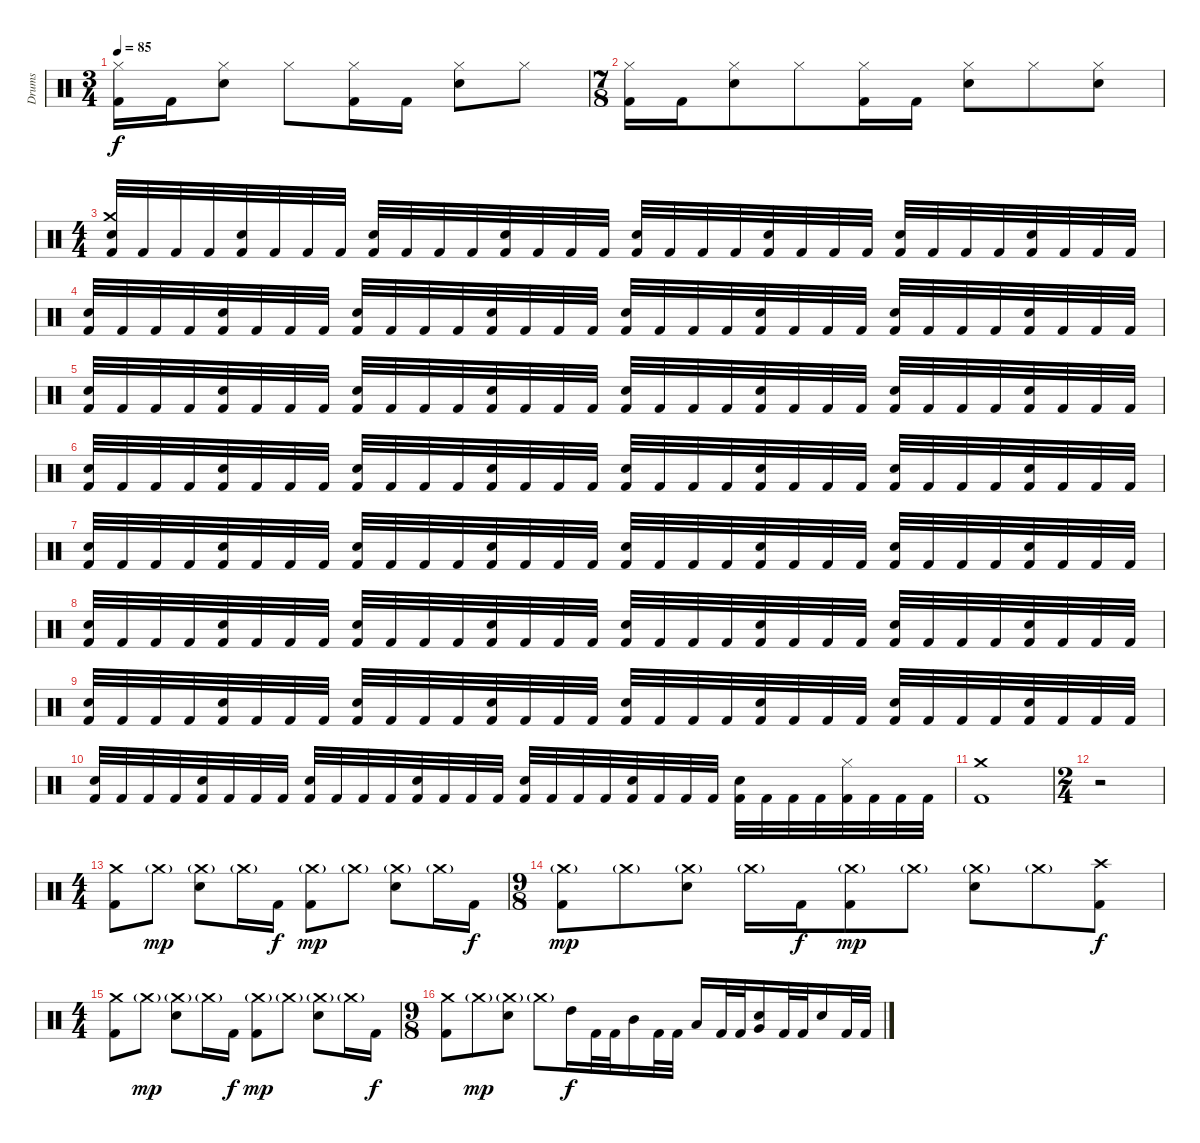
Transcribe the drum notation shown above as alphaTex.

\track ("Drums" "Drums") {instrument percussion}
\staff {score}
\articulation defaults
\ts (3 4)
\tempo 85
\clef neutral
\ks c
("Hi-Hat (closed)" "Kick (hit) 2").16{dy f} "Kick (hit) 2".16 ("Hi-Hat (closed)" "Snare (hit) 2").8 "Hi-Hat (closed)".8 ("Hi-Hat (closed)" "Kick (hit) 2").16 "Kick (hit) 2".16 ("Hi-Hat (closed)" "Snare (hit) 2").8 "Hi-Hat (closed)".8 |
\ts (7 8)
("Hi-Hat (closed)" "Kick (hit) 2").16 "Kick (hit) 2".16 ("Hi-Hat (closed)" "Snare (hit) 2").8 "Hi-Hat (closed)".8 ("Hi-Hat (closed)" "Kick (hit) 2").16 "Kick (hit) 2".16 ("Hi-Hat (closed)" "Snare (hit) 2").8 "Hi-Hat (closed)".8 ("Hi-Hat (closed)" "Snare (hit) 2").8 |
\ts (4 4)
("Crash medium (hit)" "Electric Snare (hit)" "Kick (hit) 2").32 "Kick (hit) 2".32 "Kick (hit) 2".32 "Kick (hit) 2".32 ("Electric Snare (hit)" "Kick (hit) 2").32 "Kick (hit) 2".32 "Kick (hit) 2".32 "Kick (hit) 2".32 ("Electric Snare (hit)" "Kick (hit) 2").32 "Kick (hit) 2".32 "Kick (hit) 2".32 "Kick (hit) 2".32 ("Electric Snare (hit)" "Kick (hit) 2").32 "Kick (hit) 2".32 "Kick (hit) 2".32 "Kick (hit) 2".32 ("Electric Snare (hit)" "Kick (hit) 2").32 "Kick (hit) 2".32 "Kick (hit) 2".32 "Kick (hit) 2".32 ("Electric Snare (hit)" "Kick (hit) 2").32 "Kick (hit) 2".32 "Kick (hit) 2".32 "Kick (hit) 2".32 ("Electric Snare (hit)" "Kick (hit) 2").32 "Kick (hit) 2".32 "Kick (hit) 2".32 "Kick (hit) 2".32 ("Electric Snare (hit)" "Kick (hit) 2").32 "Kick (hit) 2".32 "Kick (hit) 2".32 "Kick (hit) 2".32 |
("Electric Snare (hit)" "Kick (hit) 2").32 "Kick (hit) 2".32 "Kick (hit) 2".32 "Kick (hit) 2".32 ("Electric Snare (hit)" "Kick (hit) 2").32 "Kick (hit) 2".32 "Kick (hit) 2".32 "Kick (hit) 2".32 ("Electric Snare (hit)" "Kick (hit) 2").32 "Kick (hit) 2".32 "Kick (hit) 2".32 "Kick (hit) 2".32 ("Electric Snare (hit)" "Kick (hit) 2").32 "Kick (hit) 2".32 "Kick (hit) 2".32 "Kick (hit) 2".32 ("Electric Snare (hit)" "Kick (hit) 2").32 "Kick (hit) 2".32 "Kick (hit) 2".32 "Kick (hit) 2".32 ("Electric Snare (hit)" "Kick (hit) 2").32 "Kick (hit) 2".32 "Kick (hit) 2".32 "Kick (hit) 2".32 ("Electric Snare (hit)" "Kick (hit) 2").32 "Kick (hit) 2".32 "Kick (hit) 2".32 "Kick (hit) 2".32 ("Electric Snare (hit)" "Kick (hit) 2").32 "Kick (hit) 2".32 "Kick (hit) 2".32 "Kick (hit) 2".32 |
("Electric Snare (hit)" "Kick (hit) 2").32 "Kick (hit) 2".32 "Kick (hit) 2".32 "Kick (hit) 2".32 ("Electric Snare (hit)" "Kick (hit) 2").32 "Kick (hit) 2".32 "Kick (hit) 2".32 "Kick (hit) 2".32 ("Electric Snare (hit)" "Kick (hit) 2").32 "Kick (hit) 2".32 "Kick (hit) 2".32 "Kick (hit) 2".32 ("Electric Snare (hit)" "Kick (hit) 2").32 "Kick (hit) 2".32 "Kick (hit) 2".32 "Kick (hit) 2".32 ("Electric Snare (hit)" "Kick (hit) 2").32 "Kick (hit) 2".32 "Kick (hit) 2".32 "Kick (hit) 2".32 ("Electric Snare (hit)" "Kick (hit) 2").32 "Kick (hit) 2".32 "Kick (hit) 2".32 "Kick (hit) 2".32 ("Electric Snare (hit)" "Kick (hit) 2").32 "Kick (hit) 2".32 "Kick (hit) 2".32 "Kick (hit) 2".32 ("Electric Snare (hit)" "Kick (hit) 2").32 "Kick (hit) 2".32 "Kick (hit) 2".32 "Kick (hit) 2".32 |
("Electric Snare (hit)" "Kick (hit) 2").32 "Kick (hit) 2".32 "Kick (hit) 2".32 "Kick (hit) 2".32 ("Electric Snare (hit)" "Kick (hit) 2").32 "Kick (hit) 2".32 "Kick (hit) 2".32 "Kick (hit) 2".32 ("Electric Snare (hit)" "Kick (hit) 2").32 "Kick (hit) 2".32 "Kick (hit) 2".32 "Kick (hit) 2".32 ("Electric Snare (hit)" "Kick (hit) 2").32 "Kick (hit) 2".32 "Kick (hit) 2".32 "Kick (hit) 2".32 ("Electric Snare (hit)" "Kick (hit) 2").32 "Kick (hit) 2".32 "Kick (hit) 2".32 "Kick (hit) 2".32 ("Electric Snare (hit)" "Kick (hit) 2").32 "Kick (hit) 2".32 "Kick (hit) 2".32 "Kick (hit) 2".32 ("Electric Snare (hit)" "Kick (hit) 2").32 "Kick (hit) 2".32 "Kick (hit) 2".32 "Kick (hit) 2".32 ("Electric Snare (hit)" "Kick (hit) 2").32 "Kick (hit) 2".32 "Kick (hit) 2".32 "Kick (hit) 2".32 |
("Electric Snare (hit)" "Kick (hit) 2").32 "Kick (hit) 2".32 "Kick (hit) 2".32 "Kick (hit) 2".32 ("Electric Snare (hit)" "Kick (hit) 2").32 "Kick (hit) 2".32 "Kick (hit) 2".32 "Kick (hit) 2".32 ("Electric Snare (hit)" "Kick (hit) 2").32 "Kick (hit) 2".32 "Kick (hit) 2".32 "Kick (hit) 2".32 ("Electric Snare (hit)" "Kick (hit) 2").32 "Kick (hit) 2".32 "Kick (hit) 2".32 "Kick (hit) 2".32 ("Electric Snare (hit)" "Kick (hit) 2").32 "Kick (hit) 2".32 "Kick (hit) 2".32 "Kick (hit) 2".32 ("Electric Snare (hit)" "Kick (hit) 2").32 "Kick (hit) 2".32 "Kick (hit) 2".32 "Kick (hit) 2".32 ("Electric Snare (hit)" "Kick (hit) 2").32 "Kick (hit) 2".32 "Kick (hit) 2".32 "Kick (hit) 2".32 ("Electric Snare (hit)" "Kick (hit) 2").32 "Kick (hit) 2".32 "Kick (hit) 2".32 "Kick (hit) 2".32 |
("Electric Snare (hit)" "Kick (hit) 2").32 "Kick (hit) 2".32 "Kick (hit) 2".32 "Kick (hit) 2".32 ("Electric Snare (hit)" "Kick (hit) 2").32 "Kick (hit) 2".32 "Kick (hit) 2".32 "Kick (hit) 2".32 ("Electric Snare (hit)" "Kick (hit) 2").32 "Kick (hit) 2".32 "Kick (hit) 2".32 "Kick (hit) 2".32 ("Electric Snare (hit)" "Kick (hit) 2").32 "Kick (hit) 2".32 "Kick (hit) 2".32 "Kick (hit) 2".32 ("Electric Snare (hit)" "Kick (hit) 2").32 "Kick (hit) 2".32 "Kick (hit) 2".32 "Kick (hit) 2".32 ("Electric Snare (hit)" "Kick (hit) 2").32 "Kick (hit) 2".32 "Kick (hit) 2".32 "Kick (hit) 2".32 ("Electric Snare (hit)" "Kick (hit) 2").32 "Kick (hit) 2".32 "Kick (hit) 2".32 "Kick (hit) 2".32 ("Electric Snare (hit)" "Kick (hit) 2").32 "Kick (hit) 2".32 "Kick (hit) 2".32 "Kick (hit) 2".32 |
("Electric Snare (hit)" "Kick (hit) 2").32 "Kick (hit) 2".32 "Kick (hit) 2".32 "Kick (hit) 2".32 ("Electric Snare (hit)" "Kick (hit) 2").32 "Kick (hit) 2".32 "Kick (hit) 2".32 "Kick (hit) 2".32 ("Electric Snare (hit)" "Kick (hit) 2").32 "Kick (hit) 2".32 "Kick (hit) 2".32 "Kick (hit) 2".32 ("Electric Snare (hit)" "Kick (hit) 2").32 "Kick (hit) 2".32 "Kick (hit) 2".32 "Kick (hit) 2".32 ("Electric Snare (hit)" "Kick (hit) 2").32 "Kick (hit) 2".32 "Kick (hit) 2".32 "Kick (hit) 2".32 ("Electric Snare (hit)" "Kick (hit) 2").32 "Kick (hit) 2".32 "Kick (hit) 2".32 "Kick (hit) 2".32 ("Electric Snare (hit)" "Kick (hit) 2").32 "Kick (hit) 2".32 "Kick (hit) 2".32 "Kick (hit) 2".32 ("Electric Snare (hit)" "Kick (hit) 2").32 "Kick (hit) 2".32 "Kick (hit) 2".32 "Kick (hit) 2".32 |
("Electric Snare (hit)" "Kick (hit) 2").32 "Kick (hit) 2".32 "Kick (hit) 2".32 "Kick (hit) 2".32 ("Electric Snare (hit)" "Kick (hit) 2").32 "Kick (hit) 2".32 "Kick (hit) 2".32 "Kick (hit) 2".32 ("Electric Snare (hit)" "Kick (hit) 2").32 "Kick (hit) 2".32 "Kick (hit) 2".32 "Kick (hit) 2".32 ("Electric Snare (hit)" "Kick (hit) 2").32 "Kick (hit) 2".32 "Kick (hit) 2".32 "Kick (hit) 2".32 ("Electric Snare (hit)" "Kick (hit) 2").32 "Kick (hit) 2".32 "Kick (hit) 2".32 "Kick (hit) 2".32 ("Electric Snare (hit)" "Kick (hit) 2").32 "Kick (hit) 2".32 "Kick (hit) 2".32 "Kick (hit) 2".32 ("Electric Snare (hit)" "Kick (hit) 2").32 "Kick (hit) 2".32 "Kick (hit) 2".32 "Kick (hit) 2".32 ("Hi-Hat (closed)" "Kick (hit) 2").32 "Kick (hit) 2".32 "Kick (hit) 2".32 "Kick (hit) 2".32 |
("Crash medium (hit)" "Kick (hit) 2").1 |
\ts (2 4)
r.2 |
\ts (4 4)
("Crash medium (hit)" "Kick (hit) 2").8 "Crash medium (hit)"{g}.8{dy mp} ("Crash medium (hit)"{g} "Electric Snare (hit)").8 "Crash medium (hit)"{g}.16 "Kick (hit) 2".16{dy f} ("Crash medium (hit)"{g} "Kick (hit) 2").8{dy mp} "Crash medium (hit)"{g}.8 ("Crash medium (hit)"{g} "Electric Snare (hit)").8 "Crash medium (hit)"{g}.16 "Kick (hit) 2".16{dy f} |
\ts (9 8)
("Crash medium (hit)"{g} "Kick (hit) 2").8{dy mp} "Crash medium (hit)"{g}.8 ("Crash medium (hit)"{g} "Electric Snare (hit)").8 "Crash medium (hit)"{g}.16 "Kick (hit) 2".16{dy f} ("Crash medium (hit)"{g} "Kick (hit) 2").8{dy mp} "Crash medium (hit)"{g}.8 ("Crash medium (hit)"{g} "Electric Snare (hit)").8 "Crash medium (hit)"{g}.8 ("Crash high (hit)" "Kick (hit) 2").8{dy f} |
\ts (4 4)
("Crash medium (hit)" "Kick (hit) 2").8 "Crash medium (hit)"{g}.8{dy mp} ("Crash medium (hit)"{g} "Electric Snare (hit)").8 "Crash medium (hit)"{g}.16 "Kick (hit) 2".16{dy f} ("Crash medium (hit)"{g} "Kick (hit) 2").8{dy mp} "Crash medium (hit)"{g}.8 ("Crash medium (hit)"{g} "Electric Snare (hit)").8 "Crash medium (hit)"{g}.16 "Kick (hit) 2".16{dy f} |
\ts (9 8)
("Crash medium (hit)" "Kick (hit) 2").8 "Crash medium (hit)"{g}.8{dy mp} ("Crash medium (hit)"{g} "Electric Snare (hit)").8 "Crash medium (hit)"{g}.8 "High Tom (hit)".16{dy f} "Kick (hit) 2".32 "Kick (hit) 2".32 "Mid Tom (hit)".16 "Kick (hit) 2".32 "Kick (hit) 2".32 "Low Tom (hit)".16 "Kick (hit) 2".32 "Kick (hit) 2".32 ("Very Low Tom (hit)" "Snare (hit) 2").16 "Kick (hit) 2".32 "Kick (hit) 2".32 "Snare (hit) 2".16 "Kick (hit) 2".32 "Kick (hit) 2".32
